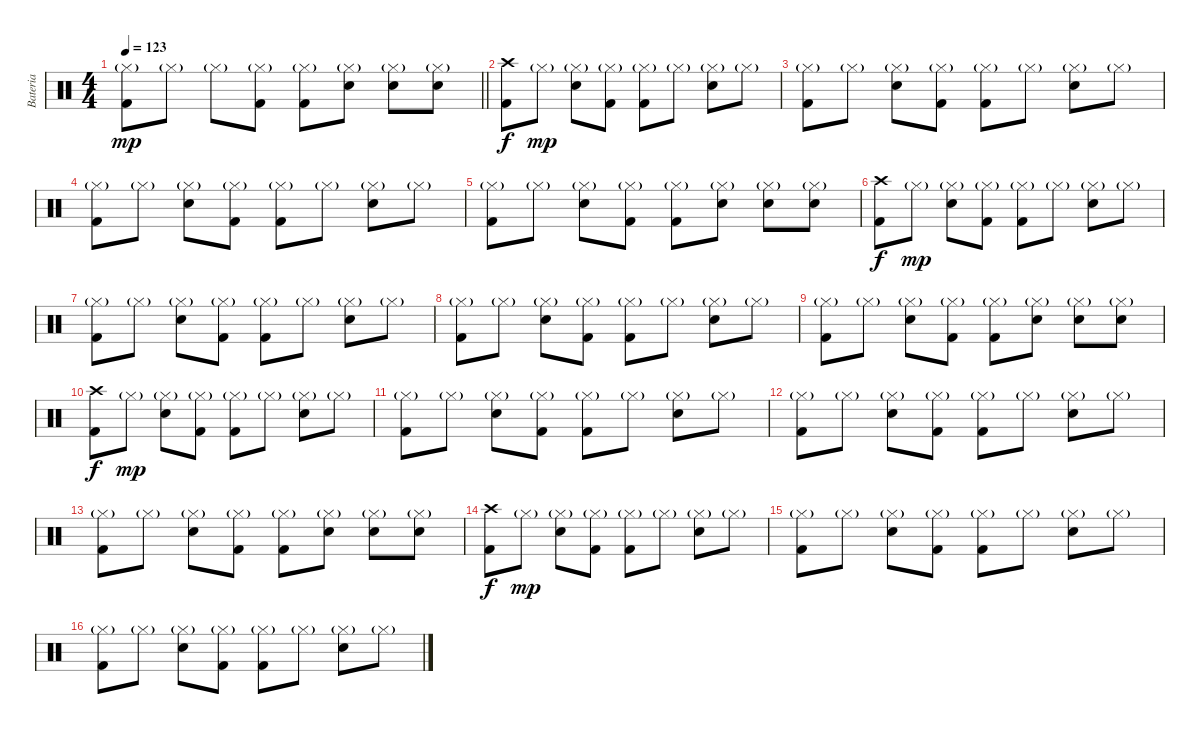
\track ("Bateria" "Bateria") {instrument percussion}
\staff {score}
\articulation defaults
\ts (4 4)
\tempo 123
\clef neutral
\barLineRight lightlight
\ks c
("Hi-Hat (closed)"{g} "Kick (hit) 2").8{dy mp} "Hi-Hat (closed)"{g}.8 "Hi-Hat (closed)"{g}.8 ("Hi-Hat (closed)"{g} "Kick (hit) 2").8 ("Hi-Hat (closed)"{g} "Kick (hit) 2").8 ("Hi-Hat (closed)"{g} "Snare (hit) 2").8 ("Hi-Hat (closed)"{g} "Snare (hit) 2").8 ("Hi-Hat (closed)"{g} "Snare (hit) 2").8 |
("Crash high (hit)" "Kick (hit) 2").8{dy f} "Hi-Hat (closed)"{g}.8{dy mp} ("Hi-Hat (closed)"{g} "Snare (hit) 2").8 ("Hi-Hat (closed)"{g} "Kick (hit) 2").8 ("Hi-Hat (closed)"{g} "Kick (hit) 2").8 "Hi-Hat (closed)"{g}.8 ("Hi-Hat (closed)"{g} "Snare (hit) 2").8 "Hi-Hat (closed)"{g}.8 |
("Hi-Hat (closed)"{g} "Kick (hit) 2").8 "Hi-Hat (closed)"{g}.8 ("Hi-Hat (closed)"{g} "Snare (hit) 2").8 ("Hi-Hat (closed)"{g} "Kick (hit) 2").8 ("Hi-Hat (closed)"{g} "Kick (hit) 2").8 "Hi-Hat (closed)"{g}.8 ("Hi-Hat (closed)"{g} "Snare (hit) 2").8 "Hi-Hat (closed)"{g}.8 |
("Hi-Hat (closed)"{g} "Kick (hit) 2").8 "Hi-Hat (closed)"{g}.8 ("Hi-Hat (closed)"{g} "Snare (hit) 2").8 ("Hi-Hat (closed)"{g} "Kick (hit) 2").8 ("Hi-Hat (closed)"{g} "Kick (hit) 2").8 "Hi-Hat (closed)"{g}.8 ("Hi-Hat (closed)"{g} "Snare (hit) 2").8 "Hi-Hat (closed)"{g}.8 |
("Hi-Hat (closed)"{g} "Kick (hit) 2").8 "Hi-Hat (closed)"{g}.8 ("Hi-Hat (closed)"{g} "Snare (hit) 2").8 ("Hi-Hat (closed)"{g} "Kick (hit) 2").8 ("Hi-Hat (closed)"{g} "Kick (hit) 2").8 ("Hi-Hat (closed)"{g} "Snare (hit) 2").8 ("Hi-Hat (closed)"{g} "Snare (hit) 2").8 ("Hi-Hat (closed)"{g} "Snare (hit) 2").8 |
("Crash high (hit)" "Kick (hit) 2").8{dy f} "Hi-Hat (closed)"{g}.8{dy mp} ("Hi-Hat (closed)"{g} "Snare (hit) 2").8 ("Hi-Hat (closed)"{g} "Kick (hit) 2").8 ("Hi-Hat (closed)"{g} "Kick (hit) 2").8 "Hi-Hat (closed)"{g}.8 ("Hi-Hat (closed)"{g} "Snare (hit) 2").8 "Hi-Hat (closed)"{g}.8 |
("Hi-Hat (closed)"{g} "Kick (hit) 2").8 "Hi-Hat (closed)"{g}.8 ("Hi-Hat (closed)"{g} "Snare (hit) 2").8 ("Hi-Hat (closed)"{g} "Kick (hit) 2").8 ("Hi-Hat (closed)"{g} "Kick (hit) 2").8 "Hi-Hat (closed)"{g}.8 ("Hi-Hat (closed)"{g} "Snare (hit) 2").8 "Hi-Hat (closed)"{g}.8 |
("Hi-Hat (closed)"{g} "Kick (hit) 2").8 "Hi-Hat (closed)"{g}.8 ("Hi-Hat (closed)"{g} "Snare (hit) 2").8 ("Hi-Hat (closed)"{g} "Kick (hit) 2").8 ("Hi-Hat (closed)"{g} "Kick (hit) 2").8 "Hi-Hat (closed)"{g}.8 ("Hi-Hat (closed)"{g} "Snare (hit) 2").8 "Hi-Hat (closed)"{g}.8 |
("Hi-Hat (closed)"{g} "Kick (hit) 2").8 "Hi-Hat (closed)"{g}.8 ("Hi-Hat (closed)"{g} "Snare (hit) 2").8 ("Hi-Hat (closed)"{g} "Kick (hit) 2").8 ("Hi-Hat (closed)"{g} "Kick (hit) 2").8 ("Hi-Hat (closed)"{g} "Snare (hit) 2").8 ("Hi-Hat (closed)"{g} "Snare (hit) 2").8 ("Hi-Hat (closed)"{g} "Snare (hit) 2").8 |
("Crash high (hit)" "Kick (hit) 2").8{dy f} "Hi-Hat (closed)"{g}.8{dy mp} ("Hi-Hat (closed)"{g} "Snare (hit) 2").8 ("Hi-Hat (closed)"{g} "Kick (hit) 2").8 ("Hi-Hat (closed)"{g} "Kick (hit) 2").8 "Hi-Hat (closed)"{g}.8 ("Hi-Hat (closed)"{g} "Snare (hit) 2").8 "Hi-Hat (closed)"{g}.8 |
("Hi-Hat (closed)"{g} "Kick (hit) 2").8 "Hi-Hat (closed)"{g}.8 ("Hi-Hat (closed)"{g} "Snare (hit) 2").8 ("Hi-Hat (closed)"{g} "Kick (hit) 2").8 ("Hi-Hat (closed)"{g} "Kick (hit) 2").8 "Hi-Hat (closed)"{g}.8 ("Hi-Hat (closed)"{g} "Snare (hit) 2").8 "Hi-Hat (closed)"{g}.8 |
("Hi-Hat (closed)"{g} "Kick (hit) 2").8 "Hi-Hat (closed)"{g}.8 ("Hi-Hat (closed)"{g} "Snare (hit) 2").8 ("Hi-Hat (closed)"{g} "Kick (hit) 2").8 ("Hi-Hat (closed)"{g} "Kick (hit) 2").8 "Hi-Hat (closed)"{g}.8 ("Hi-Hat (closed)"{g} "Snare (hit) 2").8 "Hi-Hat (closed)"{g}.8 |
("Hi-Hat (closed)"{g} "Kick (hit) 2").8 "Hi-Hat (closed)"{g}.8 ("Hi-Hat (closed)"{g} "Snare (hit) 2").8 ("Hi-Hat (closed)"{g} "Kick (hit) 2").8 ("Hi-Hat (closed)"{g} "Kick (hit) 2").8 ("Hi-Hat (closed)"{g} "Snare (hit) 2").8 ("Hi-Hat (closed)"{g} "Snare (hit) 2").8 ("Hi-Hat (closed)"{g} "Snare (hit) 2").8 |
("Crash high (hit)" "Kick (hit) 2").8{dy f} "Hi-Hat (closed)"{g}.8{dy mp} ("Hi-Hat (closed)"{g} "Snare (hit) 2").8 ("Hi-Hat (closed)"{g} "Kick (hit) 2").8 ("Hi-Hat (closed)"{g} "Kick (hit) 2").8 "Hi-Hat (closed)"{g}.8 ("Hi-Hat (closed)"{g} "Snare (hit) 2").8 "Hi-Hat (closed)"{g}.8 |
("Hi-Hat (closed)"{g} "Kick (hit) 2").8 "Hi-Hat (closed)"{g}.8 ("Hi-Hat (closed)"{g} "Snare (hit) 2").8 ("Hi-Hat (closed)"{g} "Kick (hit) 2").8 ("Hi-Hat (closed)"{g} "Kick (hit) 2").8 "Hi-Hat (closed)"{g}.8 ("Hi-Hat (closed)"{g} "Snare (hit) 2").8 "Hi-Hat (closed)"{g}.8 |
("Hi-Hat (closed)"{g} "Kick (hit) 2").8 "Hi-Hat (closed)"{g}.8 ("Hi-Hat (closed)"{g} "Snare (hit) 2").8 ("Hi-Hat (closed)"{g} "Kick (hit) 2").8 ("Hi-Hat (closed)"{g} "Kick (hit) 2").8 "Hi-Hat (closed)"{g}.8 ("Hi-Hat (closed)"{g} "Snare (hit) 2").8 "Hi-Hat (closed)"{g}.8
